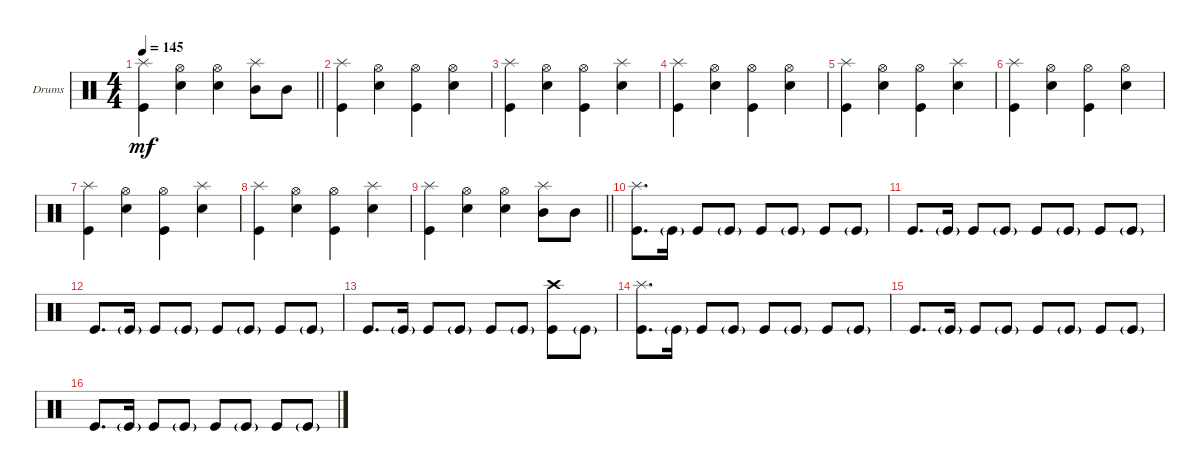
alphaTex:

\bracketExtendMode groupsimilarinstruments
\firstSystemTrackNameOrientation horizontal
\otherSystemsTrackNameOrientation horizontal
\track ("Drums" "Drums") {instrument percussion}
\staff {score}
\articulation defaults
\ts (4 4)
\tempo 145
\clef neutral
\barLineRight lightlight
\ks c
("Kick (hit)" "Splash (hit)").4{dy mf} ("Snare (hit) 2" "Hi-Hat (open)").4 ("Hi-Hat (open)" "Snare (hit) 2").4 ("Splash (hit)" "Mid Tom (hit)").8 "Mid Tom (hit)".8 |
("Kick (hit)" "Splash (hit)").4 ("Snare (hit) 2" "Hi-Hat (open)").4 ("Kick (hit)" "Hi-Hat (open)").4 ("Snare (hit) 2" "Hi-Hat (open)").4 |
("Kick (hit)" "Splash (hit)").4 ("Snare (hit) 2" "Hi-Hat (open)").4 ("Kick (hit)" "Hi-Hat (open)").4 ("Snare (hit) 2" "Splash (hit)").4 |
("Kick (hit)" "Splash (hit)").4 ("Snare (hit) 2" "Hi-Hat (open)").4 ("Kick (hit)" "Hi-Hat (open)").4 ("Snare (hit) 2" "Hi-Hat (open)").4 |
("Kick (hit)" "Splash (hit)").4 ("Snare (hit) 2" "Hi-Hat (open)").4 ("Kick (hit)" "Hi-Hat (open)").4 ("Snare (hit) 2" "Splash (hit)").4 |
("Kick (hit)" "Splash (hit)").4 ("Snare (hit) 2" "Hi-Hat (open)").4 ("Kick (hit)" "Hi-Hat (open)").4 ("Snare (hit) 2" "Hi-Hat (open)").4 |
("Kick (hit)" "Splash (hit)").4 ("Snare (hit) 2" "Hi-Hat (open)").4 ("Kick (hit)" "Hi-Hat (open)").4 ("Snare (hit) 2" "Splash (hit)").4 |
("Kick (hit)" "Splash (hit)").4 ("Snare (hit) 2" "Hi-Hat (open)").4 ("Kick (hit)" "Hi-Hat (open)").4 ("Snare (hit) 2" "Splash (hit)").4 |
\barLineRight lightlight
("Kick (hit)" "Splash (hit)").4 ("Snare (hit) 2" "Hi-Hat (open)").4 ("Hi-Hat (open)" "Snare (hit) 2").4 ("Splash (hit)" "Mid Tom (hit)").8 "Mid Tom (hit)".8 |
("Kick (hit)" "Splash (hit)").8{d} "Kick (hit)"{g}.16 "Kick (hit)".8 "Kick (hit)"{g}.8 "Kick (hit)".8 "Kick (hit)"{g}.8 "Kick (hit)".8 "Kick (hit)"{g}.8 |
"Kick (hit)".8{d} "Kick (hit)"{g}.16 "Kick (hit)".8 "Kick (hit)"{g}.8 "Kick (hit)".8 "Kick (hit)"{g}.8 "Kick (hit)".8 "Kick (hit)"{g}.8 |
"Kick (hit)".8{d} "Kick (hit)"{g}.16 "Kick (hit)".8 "Kick (hit)"{g}.8 "Kick (hit)".8 "Kick (hit)"{g}.8 "Kick (hit)".8 "Kick (hit)"{g}.8 |
"Kick (hit)".8{d} "Kick (hit)"{g}.16 "Kick (hit)".8 "Kick (hit)"{g}.8 "Kick (hit)".8 "Kick (hit)"{g}.8 ("Kick (hit)" "Crash high (hit)").8 "Kick (hit)"{g}.8 |
("Kick (hit)" "Splash (hit)").8{d} "Kick (hit)"{g}.16 "Kick (hit)".8 "Kick (hit)"{g}.8 "Kick (hit)".8 "Kick (hit)"{g}.8 "Kick (hit)".8 "Kick (hit)"{g}.8 |
"Kick (hit)".8{d} "Kick (hit)"{g}.16 "Kick (hit)".8 "Kick (hit)"{g}.8 "Kick (hit)".8 "Kick (hit)"{g}.8 "Kick (hit)".8 "Kick (hit)"{g}.8 |
"Kick (hit)".8{d} "Kick (hit)"{g}.16 "Kick (hit)".8 "Kick (hit)"{g}.8 "Kick (hit)".8 "Kick (hit)"{g}.8 "Kick (hit)".8 "Kick (hit)"{g}.8
